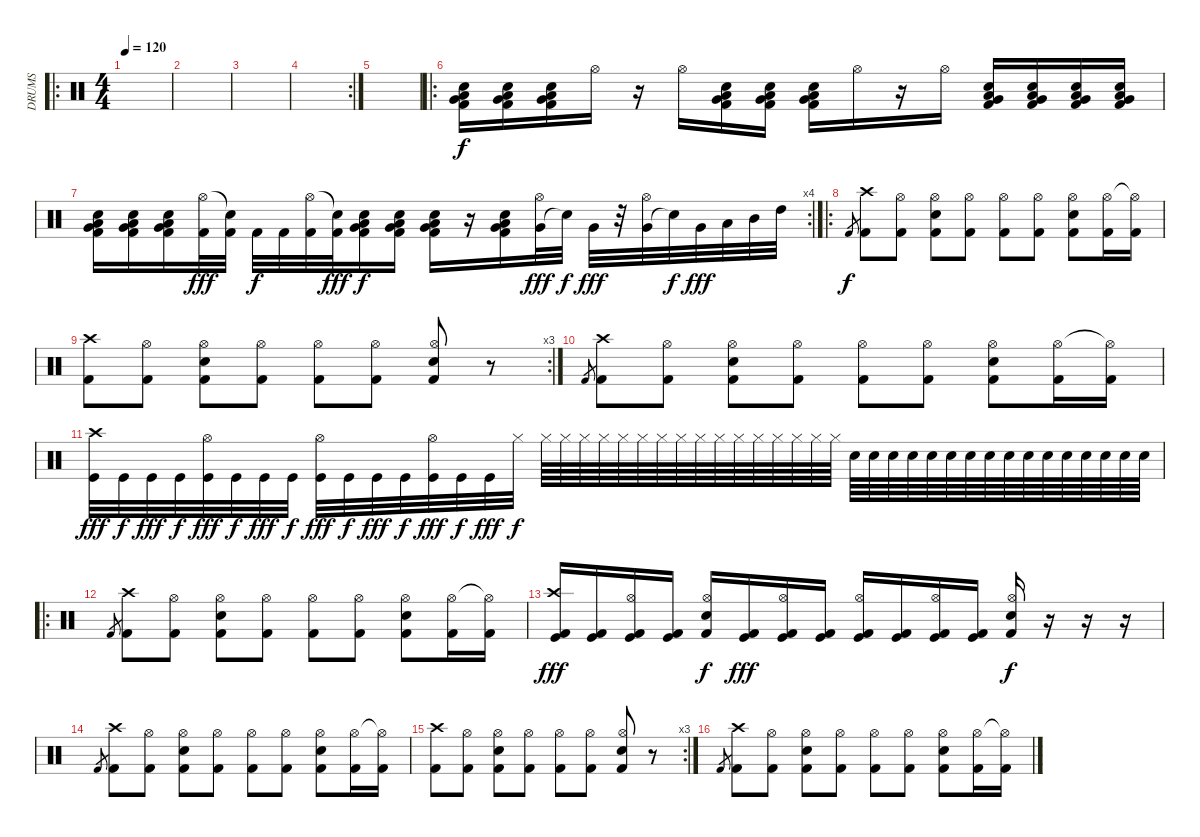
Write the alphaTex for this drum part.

\track ("DRUMS" "DRUMS") {instrument percussion}
\staff {score}
\articulation defaults
\ro
\ts (4 4)
\tempo 120
\clef neutral
\ks c
|
|
|
\rc 2
|
|
\ro
("Electric Snare (hit)" "Low Floor Tom (hit)" "Very Low Tom (hit)" "Kick (hit) 2").16 ("Electric Snare (hit)" "Low Floor Tom (hit)" "Very Low Tom (hit)" "Kick (hit) 2").16 ("Electric Snare (hit)" "Low Floor Tom (hit)" "Very Low Tom (hit)" "Kick (hit) 2").16 "Hi-Hat (open)".16 r.16 "Hi-Hat (open)".16 ("Electric Snare (hit)" "Low Floor Tom (hit)" "Very Low Tom (hit)" "Kick (hit) 2").16 ("Electric Snare (hit)" "Low Floor Tom (hit)" "Very Low Tom (hit)" "Kick (hit) 2").16 ("Electric Snare (hit)" "Low Floor Tom (hit)" "Very Low Tom (hit)" "Kick (hit) 2").16 "Hi-Hat (open)".16 r.16 "Hi-Hat (open)".16 ("Electric Snare (hit)" "Low Floor Tom (hit)" "Very Low Tom (hit)" "Kick (hit) 2").16 ("Electric Snare (hit)" "Low Floor Tom (hit)" "Very Low Tom (hit)" "Kick (hit) 2").16 ("Electric Snare (hit)" "Low Floor Tom (hit)" "Very Low Tom (hit)" "Kick (hit) 2").16 ("Electric Snare (hit)" "Low Floor Tom (hit)" "Very Low Tom (hit)" "Kick (hit) 2").16 |
\rc 4
("Electric Snare (hit)" "Low Floor Tom (hit)" "Very Low Tom (hit)" "Kick (hit) 2").16 ("Electric Snare (hit)" "Low Floor Tom (hit)" "Very Low Tom (hit)" "Kick (hit) 2").16 ("Electric Snare (hit)" "Low Floor Tom (hit)" "Very Low Tom (hit)" "Kick (hit) 2").16 ("Kick (hit) 2" "Hi-Hat (open)").32{dy fff} ("Kick (hit) 2" "Snare (hit)"{t}).32 "Kick (hit) 2".32{dy f} "Kick (hit) 2".32 ("Kick (hit) 2" "Hi-Hat (open)").32 ("Kick (hit) 2" "Snare (hit)"{t}).32{dy fff} ("Electric Snare (hit)" "Low Floor Tom (hit)" "Very Low Tom (hit)" "Kick (hit) 2").16{dy f} ("Electric Snare (hit)" "Low Floor Tom (hit)" "Very Low Tom (hit)" "Kick (hit) 2").16 ("Electric Snare (hit)" "Low Floor Tom (hit)" "Very Low Tom (hit)" "Kick (hit) 2").16 r.16 ("Electric Snare (hit)" "Low Floor Tom (hit)" "Very Low Tom (hit)" "Kick (hit) 2").16 ("Very Low Tom (hit)" "Hi-Hat (open)").32{dy fff} "Snare (hit)"{t}.32{dy f} "Very Low Tom (hit)".32{dy fff} r.32 ("Very Low Tom (hit)" "Hi-Hat (open)").32 "Snare (hit)"{t}.32{dy f} "Very Low Tom (hit)".32{dy fff} "Low Tom (hit)".32 "Mid Tom (hit)".32 "High Tom (hit)".32 |
\ro "Kick (hit) 2".8{gr dy f}
("Crash high (hit)" "Kick (hit) 2").8 ("Hi-Hat (open)" "Kick (hit) 2").8 ("Hi-Hat (open)" "Snare (hit) 2" "Kick (hit) 2").8 ("Hi-Hat (open)" "Kick (hit) 2").8 ("Hi-Hat (open)" "Kick (hit) 2").8 ("Hi-Hat (open)" "Kick (hit) 2").8 ("Hi-Hat (open)" "Snare (hit) 2" "Kick (hit) 2").8 ("Hi-Hat (open)" "Kick (hit) 2").16 ("Hi-Hat (open)"{t} "Kick (hit) 2").16 |
\rc 3
("Crash high (hit)" "Kick (hit) 2").8 ("Hi-Hat (open)" "Kick (hit) 2").8 ("Hi-Hat (open)" "Snare (hit) 2" "Kick (hit) 2").8 ("Hi-Hat (open)" "Kick (hit) 2").8 ("Hi-Hat (open)" "Kick (hit) 2").8 ("Hi-Hat (open)" "Kick (hit) 2").8 ("Hi-Hat (open)" "Snare (hit) 2" "Kick (hit) 2").8 r.8 |
"Kick (hit) 2".8{gr} ("Crash high (hit)" "Kick (hit) 2").8 ("Hi-Hat (open)" "Kick (hit) 2").8 ("Hi-Hat (open)" "Snare (hit) 2" "Kick (hit) 2").8 ("Hi-Hat (open)" "Kick (hit) 2").8 ("Hi-Hat (open)" "Kick (hit) 2").8 ("Hi-Hat (open)" "Kick (hit) 2").8 ("Hi-Hat (open)" "Snare (hit) 2" "Kick (hit) 2").8 ("Hi-Hat (open)" "Kick (hit) 2").16 ("Hi-Hat (open)"{t} "Kick (hit) 2").16 |
("Crash high (hit)" "Kick (hit)").32{dy fff} "Kick (hit)".32{dy f} "Kick (hit)".32{dy fff} "Kick (hit)".32{dy f} ("Hi-Hat (open)" "Kick (hit)").32{dy fff} "Kick (hit)".32{dy f} "Kick (hit)".32{dy fff} "Kick (hit)".32{dy f} ("Hi-Hat (open)" "Kick (hit)").32{dy fff} "Kick (hit)".32{dy f} "Kick (hit)".32{dy fff} "Kick (hit)".32{dy f} ("Hi-Hat (open)" "Kick (hit)").32{dy fff} "Kick (hit)".32{dy f} "Kick (hit)".32{dy fff} "Hi-Hat (closed)".32{dy f} "Hi-Hat (closed)".64 "Hi-Hat (closed)".64 "Hi-Hat (closed)".64 "Hi-Hat (closed)".64 "Hi-Hat (closed)".64 "Hi-Hat (closed)".64 "Hi-Hat (closed)".64 "Hi-Hat (closed)".64 "Hi-Hat (closed)".64 "Hi-Hat (closed)".64 "Hi-Hat (closed)".64 "Hi-Hat (closed)".64 "Hi-Hat (closed)".64 "Hi-Hat (closed)".64 "Hi-Hat (closed)".64 "Hi-Hat (closed)".64 "Electric Snare (hit)".64 "Electric Snare (hit)".64 "Electric Snare (hit)".64 "Electric Snare (hit)".64 "Electric Snare (hit)".64 "Electric Snare (hit)".64 "Electric Snare (hit)".64 "Electric Snare (hit)".64 "Electric Snare (hit)".64 "Electric Snare (hit)".64 "Electric Snare (hit)".64 "Electric Snare (hit)".64 "Electric Snare (hit)".64 "Electric Snare (hit)".64 "Electric Snare (hit)".64 "Electric Snare (hit)".64 |
\ro "Kick (hit) 2".8{gr}
("Crash high (hit)" "Kick (hit) 2").8 ("Hi-Hat (open)" "Kick (hit) 2").8 ("Hi-Hat (open)" "Snare (hit) 2" "Kick (hit) 2").8 ("Hi-Hat (open)" "Kick (hit) 2").8 ("Hi-Hat (open)" "Kick (hit) 2").8 ("Hi-Hat (open)" "Kick (hit) 2").8 ("Hi-Hat (open)" "Snare (hit) 2" "Kick (hit) 2").8 ("Hi-Hat (open)" "Kick (hit) 2").16 ("Hi-Hat (open)"{t} "Kick (hit) 2").16 |
("Crash high (hit)" "Kick (hit)" "Kick (hit) 2").16{dy fff} ("Kick (hit)" "Kick (hit) 2").16 ("Hi-Hat (open)" "Kick (hit)" "Kick (hit) 2").16 ("Kick (hit)" "Kick (hit) 2").16 ("Hi-Hat (open)" "Snare (hit) 2" "Kick (hit) 2").16{dy f} ("Kick (hit)" "Kick (hit) 2").16{dy fff} ("Hi-Hat (open)" "Kick (hit)" "Kick (hit) 2").16 ("Kick (hit)" "Kick (hit) 2").16 ("Hi-Hat (open)" "Kick (hit)" "Kick (hit) 2").16 ("Kick (hit)" "Kick (hit) 2").16 ("Hi-Hat (open)" "Kick (hit)" "Kick (hit) 2").16 ("Kick (hit)" "Kick (hit) 2").16 ("Hi-Hat (open)" "Snare (hit) 2" "Kick (hit) 2").16{dy f} r.16 r.16 r.16 |
"Kick (hit) 2".8{gr} ("Crash high (hit)" "Kick (hit) 2").8 ("Hi-Hat (open)" "Kick (hit) 2").8 ("Hi-Hat (open)" "Snare (hit) 2" "Kick (hit) 2").8 ("Hi-Hat (open)" "Kick (hit) 2").8 ("Hi-Hat (open)" "Kick (hit) 2").8 ("Hi-Hat (open)" "Kick (hit) 2").8 ("Hi-Hat (open)" "Snare (hit) 2" "Kick (hit) 2").8 ("Hi-Hat (open)" "Kick (hit) 2").16 ("Hi-Hat (open)"{t} "Kick (hit) 2").16 |
\rc 3
("Crash high (hit)" "Kick (hit) 2").8 ("Hi-Hat (open)" "Kick (hit) 2").8 ("Hi-Hat (open)" "Snare (hit) 2" "Kick (hit) 2").8 ("Hi-Hat (open)" "Kick (hit) 2").8 ("Hi-Hat (open)" "Kick (hit) 2").8 ("Hi-Hat (open)" "Kick (hit) 2").8 ("Hi-Hat (open)" "Snare (hit) 2" "Kick (hit) 2").8 r.8 |
"Kick (hit) 2".8{gr} ("Crash high (hit)" "Kick (hit) 2").8 ("Hi-Hat (open)" "Kick (hit) 2").8 ("Hi-Hat (open)" "Snare (hit) 2" "Kick (hit) 2").8 ("Hi-Hat (open)" "Kick (hit) 2").8 ("Hi-Hat (open)" "Kick (hit) 2").8 ("Hi-Hat (open)" "Kick (hit) 2").8 ("Hi-Hat (open)" "Snare (hit) 2" "Kick (hit) 2").8 ("Hi-Hat (open)" "Kick (hit) 2").16 ("Hi-Hat (open)"{t} "Kick (hit) 2").16
